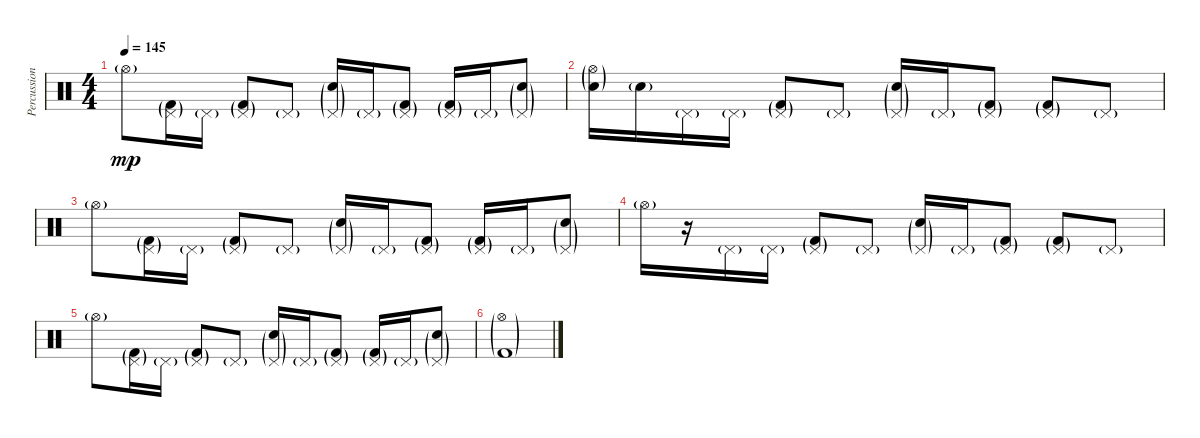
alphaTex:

\track ("Percussion" "Percussion") {instrument percussion}
\staff {score}
\articulation defaults
\ts (4 4)
\tempo 145
\clef neutral
\ks c "Hi-Hat (open)"{g}.8{dy mp}
("Pedal Hi-Hat (hit)"{g} "Kick (hit) 2"{g}).16 "Pedal Hi-Hat (hit)"{g}.16 ("Pedal Hi-Hat (hit)"{g} "Kick (hit) 2"{g}).8 "Pedal Hi-Hat (hit)"{g}.8 ("Pedal Hi-Hat (hit)"{g} "Snare (hit) 2"{g}).16 "Pedal Hi-Hat (hit)"{g}.16 ("Pedal Hi-Hat (hit)"{g} "Kick (hit) 2"{g}).8 ("Pedal Hi-Hat (hit)"{g} "Kick (hit) 2"{g}).16 "Pedal Hi-Hat (hit)"{g}.16 ("Pedal Hi-Hat (hit)"{g} "Snare (hit) 2"{g}).8 |
("Hi-Hat (open)"{g} "Snare (hit) 2"{g}).16{volume 2} "Snare (hit) 2"{g}.16 "Pedal Hi-Hat (hit)"{g}.16 "Pedal Hi-Hat (hit)"{g}.16 ("Pedal Hi-Hat (hit)"{g} "Kick (hit) 2"{g}).8 "Pedal Hi-Hat (hit)"{g}.8 ("Pedal Hi-Hat (hit)"{g} "Snare (hit) 2"{g}).16 "Pedal Hi-Hat (hit)"{g}.16 ("Pedal Hi-Hat (hit)"{g} "Kick (hit) 2"{g}).8 ("Pedal Hi-Hat (hit)"{g} "Kick (hit) 2"{g}).8 "Pedal Hi-Hat (hit)"{g}.8 |
"Hi-Hat (open)"{g}.8 ("Pedal Hi-Hat (hit)"{g} "Kick (hit) 2"{g}).16 "Pedal Hi-Hat (hit)"{g}.16 ("Pedal Hi-Hat (hit)"{g} "Kick (hit) 2"{g}).8 "Pedal Hi-Hat (hit)"{g}.8 ("Pedal Hi-Hat (hit)"{g} "Snare (hit) 2"{g}).16 "Pedal Hi-Hat (hit)"{g}.16 ("Pedal Hi-Hat (hit)"{g} "Kick (hit) 2"{g}).8 ("Pedal Hi-Hat (hit)"{g} "Kick (hit) 2"{g}).16 "Pedal Hi-Hat (hit)"{g}.16 ("Pedal Hi-Hat (hit)"{g} "Snare (hit) 2"{g}).8 |
"Hi-Hat (open)"{g}.16 r.16 "Pedal Hi-Hat (hit)"{g}.16 "Pedal Hi-Hat (hit)"{g}.16 ("Pedal Hi-Hat (hit)"{g} "Kick (hit) 2"{g}).8 "Pedal Hi-Hat (hit)"{g}.8 ("Pedal Hi-Hat (hit)"{g} "Snare (hit) 2"{g}).16 "Pedal Hi-Hat (hit)"{g}.16 ("Pedal Hi-Hat (hit)"{g} "Kick (hit) 2"{g}).8 ("Pedal Hi-Hat (hit)"{g} "Kick (hit) 2"{g}).8 "Pedal Hi-Hat (hit)"{g}.8 |
"Hi-Hat (open)"{g}.8 ("Pedal Hi-Hat (hit)"{g} "Kick (hit) 2"{g}).16 "Pedal Hi-Hat (hit)"{g}.16 ("Pedal Hi-Hat (hit)"{g} "Kick (hit) 2"{g}).8 "Pedal Hi-Hat (hit)"{g}.8 ("Pedal Hi-Hat (hit)"{g} "Snare (hit) 2"{g}).16 "Pedal Hi-Hat (hit)"{g}.16 ("Pedal Hi-Hat (hit)"{g} "Kick (hit) 2"{g}).8 ("Pedal Hi-Hat (hit)"{g} "Kick (hit) 2"{g}).16 "Pedal Hi-Hat (hit)"{g}.16 ("Pedal Hi-Hat (hit)"{g} "Snare (hit) 2"{g}).8 |
("Hi-Hat (open)"{g} "Kick (hit) 2"{g}).1{volume 0}
